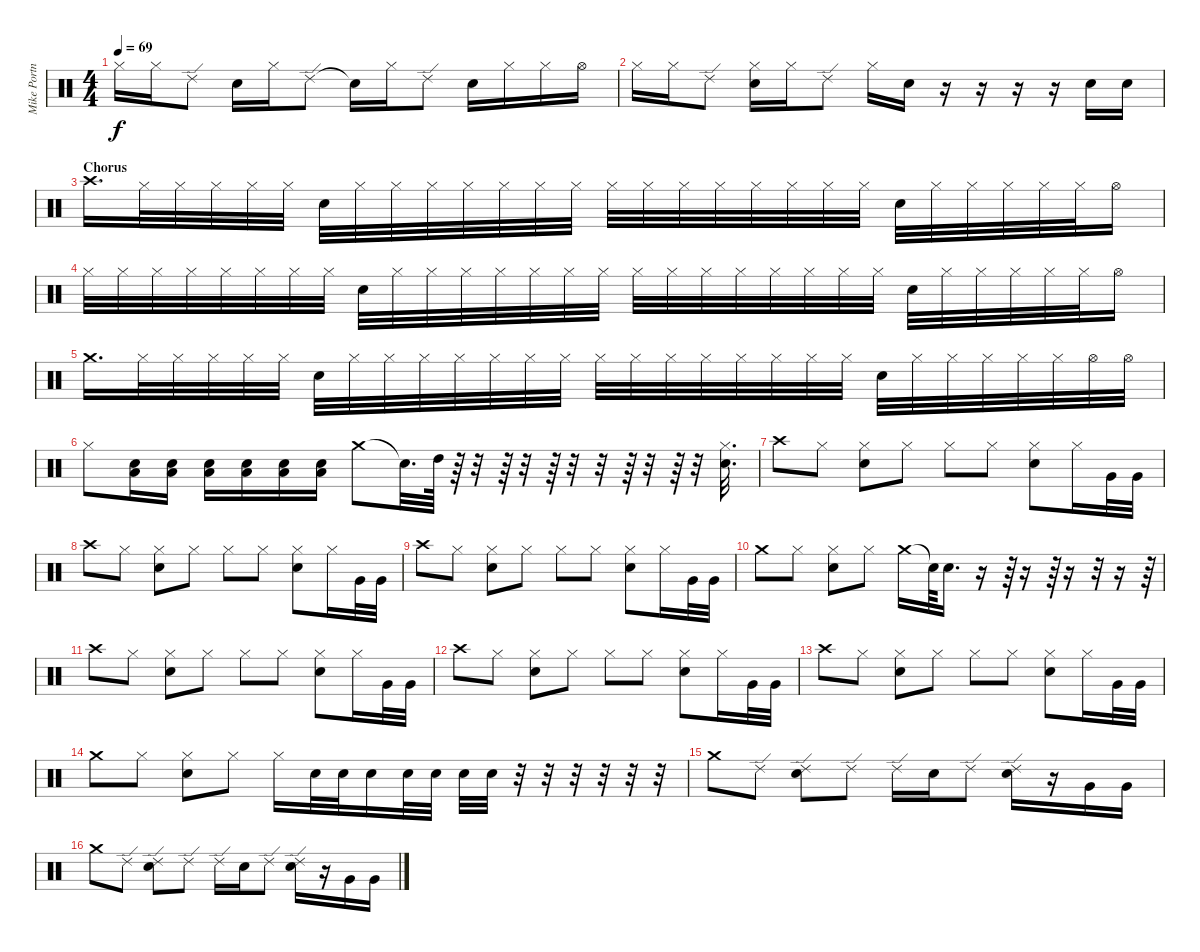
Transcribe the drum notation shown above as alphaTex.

\track ("Mike Portnoy" "Mike Portn") {instrument percussion}
\staff {score}
\articulation defaults
\ts (4 4)
\tempo 69
\clef neutral
\ks c "Hi-Hat (closed)".16{dy f} "Hi-Hat (closed)".16 "Ride (edge) 2".8 "Snare (hit) 2".16 "Hi-Hat (closed)".16 "Ride (edge) 2".8 "Snare (hit)"{t}.16 "Hi-Hat (closed)".16 "Ride (edge) 2".8 "Snare (hit) 2".16 "Hi-Hat (closed)".16 "Hi-Hat (closed)".16 "Hi-Hat (open)".16
|
"Hi-Hat (closed)".16 "Hi-Hat (closed)".16 "Ride (edge) 2".8 ("Snare (hit) 2" "Hi-Hat (closed)").16 "Hi-Hat (closed)".16 "Ride (edge) 2".8 "Hi-Hat (closed)".16 "Snare (hit) 2".16 r.16 r.16 r.16 r.16 "Snare (hit) 2".16 "Snare (hit) 2".16 |
\section ("" "Chorus")
"Crash high (hit)".16{d} "Hi-Hat (closed)".32 "Hi-Hat (closed)".32 "Hi-Hat (closed)".32 "Hi-Hat (closed)".32 "Hi-Hat (closed)".32 "Snare (hit) 2".32 "Hi-Hat (closed)".32 "Hi-Hat (closed)".32 "Hi-Hat (closed)".32 "Hi-Hat (closed)".32 "Hi-Hat (closed)".32 "Hi-Hat (closed)".32 "Hi-Hat (closed)".32 "Hi-Hat (closed)".32 "Hi-Hat (closed)".32 "Hi-Hat (closed)".32 "Hi-Hat (closed)".32 "Hi-Hat (closed)".32 "Hi-Hat (closed)".32 "Hi-Hat (closed)".32 "Hi-Hat (closed)".32 "Snare (hit) 2".32 "Hi-Hat (closed)".32 "Hi-Hat (closed)".32 "Hi-Hat (closed)".32 "Hi-Hat (closed)".32 "Hi-Hat (closed)".32 "Hi-Hat (open)".16 |
"Hi-Hat (closed)".32 "Hi-Hat (closed)".32 "Hi-Hat (closed)".32 "Hi-Hat (closed)".32 "Hi-Hat (closed)".32 "Hi-Hat (closed)".32 "Hi-Hat (closed)".32 "Hi-Hat (closed)".32 "Snare (hit) 2".32 "Hi-Hat (closed)".32 "Hi-Hat (closed)".32 "Hi-Hat (closed)".32 "Hi-Hat (closed)".32 "Hi-Hat (closed)".32 "Hi-Hat (closed)".32 "Hi-Hat (closed)".32 "Hi-Hat (closed)".32 "Hi-Hat (closed)".32 "Hi-Hat (closed)".32 "Hi-Hat (closed)".32 "Hi-Hat (closed)".32 "Hi-Hat (closed)".32 "Hi-Hat (closed)".32 "Hi-Hat (closed)".32 "Snare (hit) 2".32 "Hi-Hat (closed)".32 "Hi-Hat (closed)".32 "Hi-Hat (closed)".32 "Hi-Hat (closed)".32 "Hi-Hat (closed)".32 "Hi-Hat (open)".16 |
"Crash medium (hit)".16{d} "Hi-Hat (closed)".32 "Hi-Hat (closed)".32 "Hi-Hat (closed)".32 "Hi-Hat (closed)".32 "Hi-Hat (closed)".32 "Snare (hit) 2".32 "Hi-Hat (closed)".32 "Hi-Hat (closed)".32 "Hi-Hat (closed)".32 "Hi-Hat (closed)".32 "Hi-Hat (closed)".32 "Hi-Hat (closed)".32 "Hi-Hat (closed)".32 "Hi-Hat (closed)".32 "Hi-Hat (closed)".32 "Hi-Hat (closed)".32 "Hi-Hat (closed)".32 "Hi-Hat (closed)".32 "Hi-Hat (closed)".32 "Hi-Hat (closed)".32 "Hi-Hat (closed)".32 "Snare (hit) 2".32 "Hi-Hat (closed)".32 "Hi-Hat (closed)".32 "Hi-Hat (closed)".32 "Hi-Hat (closed)".32 "Hi-Hat (closed)".32 "Hi-Hat (open)".32 "Hi-Hat (open)".32 |
"Hi-Hat (closed)".8 ("Snare (hit) 2" "Low Floor Tom (hit)").16 ("Snare (hit) 2" "Low Floor Tom (hit)").16 ("Snare (hit) 2" "Low Floor Tom (hit)").16 ("Snare (hit) 2" "Low Floor Tom (hit)").16 ("Snare (hit) 2" "Low Floor Tom (hit)").16 ("Snare (hit) 2" "Low Floor Tom (hit)").16 "Crash medium (hit)".8 "Snare (hit)"{t}.32{d} "High Tom (hit)".64 r.64 r.32 r.64 r.32 r.64 r.32 r.32 r.64 r.32 r.64 r.32 ("Snare (hit) 2" "Hi-Hat (closed)").32{d} |
"Crash high (hit)".8 "Hi-Hat (closed)".8 ("Snare (hit) 2" "Hi-Hat (closed)").8 "Hi-Hat (closed)".8 "Hi-Hat (closed)".8 "Hi-Hat (closed)".8 ("Snare (hit) 2" "Hi-Hat (closed)").8 "Hi-Hat (closed)".16 "Very Low Tom (hit)".32 "Very Low Tom (hit)".32 |
"Crash high (hit)".8 "Hi-Hat (closed)".8 ("Snare (hit) 2" "Hi-Hat (closed)").8 "Hi-Hat (closed)".8 "Hi-Hat (closed)".8 "Hi-Hat (closed)".8 ("Snare (hit) 2" "Hi-Hat (closed)").8 "Hi-Hat (closed)".16 "Very Low Tom (hit)".32 "Very Low Tom (hit)".32 |
"Crash high (hit)".8 "Hi-Hat (closed)".8 ("Snare (hit) 2" "Hi-Hat (closed)").8 "Hi-Hat (closed)".8 "Hi-Hat (closed)".8 "Hi-Hat (closed)".8 ("Snare (hit) 2" "Hi-Hat (closed)").8 "Hi-Hat (closed)".16 "Very Low Tom (hit)".32 "Very Low Tom (hit)".32 |
"Crash medium (hit)".8 "Hi-Hat (closed)".8 ("Snare (hit) 2" "Hi-Hat (closed)").8 "Hi-Hat (closed)".8 "Crash medium (hit)".16 "Snare (hit)"{t}.64 "Snare (hit) 2".16{d} r.16 r.64 r.16 r.64 r.16 r.32 r.16 r.64 |
"Crash high (hit)".8 "Hi-Hat (closed)".8 ("Snare (hit) 2" "Hi-Hat (closed)").8 "Hi-Hat (closed)".8 "Hi-Hat (closed)".8 "Hi-Hat (closed)".8 ("Snare (hit) 2" "Hi-Hat (closed)").8 "Hi-Hat (closed)".16 "Very Low Tom (hit)".32 "Very Low Tom (hit)".32 |
"Crash high (hit)".8 "Hi-Hat (closed)".8 ("Snare (hit) 2" "Hi-Hat (closed)").8 "Hi-Hat (closed)".8 "Hi-Hat (closed)".8 "Hi-Hat (closed)".8 ("Snare (hit) 2" "Hi-Hat (closed)").8 "Hi-Hat (closed)".16 "Very Low Tom (hit)".32 "Very Low Tom (hit)".32 |
"Crash high (hit)".8 "Hi-Hat (closed)".8 ("Snare (hit) 2" "Hi-Hat (closed)").8 "Hi-Hat (closed)".8 "Hi-Hat (closed)".8 "Hi-Hat (closed)".8 ("Snare (hit) 2" "Hi-Hat (closed)").8 "Hi-Hat (closed)".16 "Very Low Tom (hit)".32 "Very Low Tom (hit)".32 |
"Crash medium (hit)".8 "Hi-Hat (closed)".8 ("Snare (hit) 2" "Hi-Hat (closed)").8 "Hi-Hat (closed)".8 "Hi-Hat (closed)".16 "Snare (hit) 2".32 "Snare (hit) 2".32 "Snare (hit) 2".16 "Snare (hit) 2".32 "Snare (hit) 2".32 "Snare (hit) 2".32 "Snare (hit) 2".32 r.32 r.32 r.32 r.32 r.32 r.32 |
"Crash medium (hit)".8 "Ride (edge) 2".8 ("Snare (hit) 2" "Ride (edge) 2").8 "Ride (edge) 2".8 "Ride (edge) 2".16 "Snare (hit) 2".16 "Ride (edge) 2".8 ("Snare (hit) 2" "Ride (edge) 2").16 r.16 "Very Low Tom (hit)".16 "Very Low Tom (hit)".16 |
"Crash medium (hit)".8 "Ride (edge) 2".8 ("Snare (hit) 2" "Ride (edge) 2").8 "Ride (edge) 2".8 "Ride (edge) 2".16 "Snare (hit) 2".16 "Ride (edge) 2".8 ("Snare (hit) 2" "Ride (edge) 2").16 r.16 "Very Low Tom (hit)".16 "Very Low Tom (hit)".16
